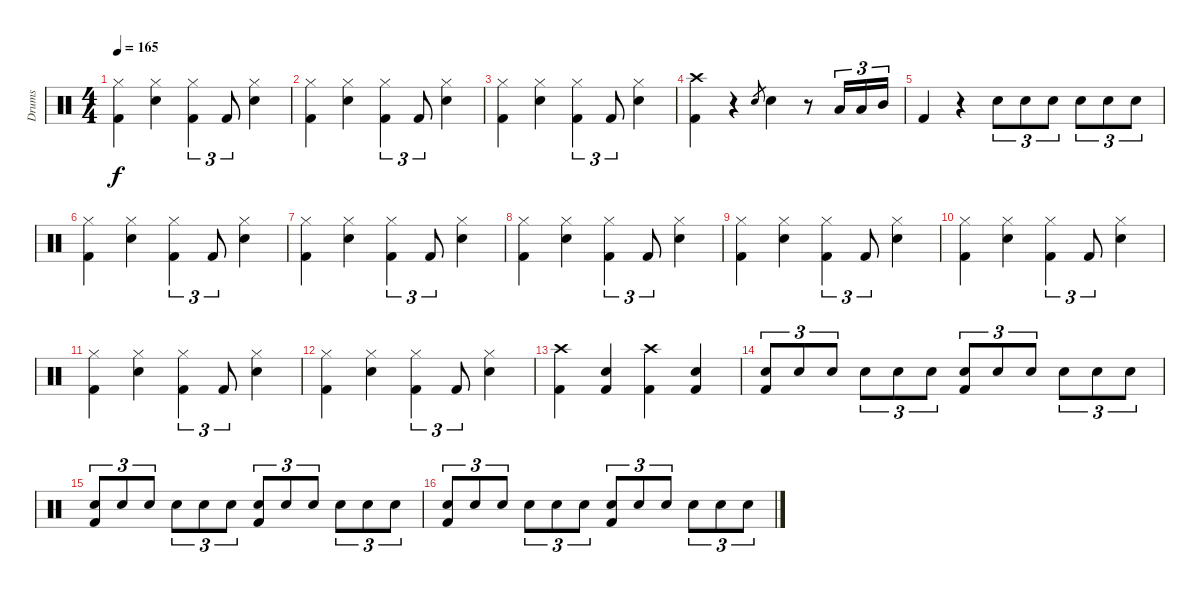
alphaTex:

\track ("Drums" "Drums") {instrument percussion}
\staff {score}
\articulation defaults
\ts (4 4)
\tempo 165
\clef neutral
\ks c
("Hi-Hat (closed)" "Kick (hit) 2").4{dy f} ("Hi-Hat (closed)" "Electric Snare (hit)").4 ("Hi-Hat (closed)" "Kick (hit) 2").4{tu (3 2)} "Kick (hit) 2".8{tu (3 2)} ("Hi-Hat (closed)" "Electric Snare (hit)").4 |
("Hi-Hat (closed)" "Kick (hit) 2").4 ("Hi-Hat (closed)" "Electric Snare (hit)").4 ("Hi-Hat (closed)" "Kick (hit) 2").4{tu (3 2)} "Kick (hit) 2".8{tu (3 2)} ("Hi-Hat (closed)" "Electric Snare (hit)").4 |
("Hi-Hat (closed)" "Kick (hit) 2").4 ("Hi-Hat (closed)" "Electric Snare (hit)").4 ("Hi-Hat (closed)" "Kick (hit) 2").4{tu (3 2)} "Kick (hit) 2".8{tu (3 2)} ("Hi-Hat (closed)" "Electric Snare (hit)").4 |
("Crash high (hit)" "Kick (hit) 2").4 r.4 "Electric Snare (hit)".8{gr} "Electric Snare (hit)".4 r.8 "Low Floor Tom (hit)".16{tu (3 2)} "Low Tom (hit)".16{tu (3 2)} "Mid Tom (hit)".16{tu (3 2)} |
"Kick (hit) 2".4 r.4 "Electric Snare (hit)".8{tu (3 2)} "Electric Snare (hit)".8{tu (3 2)} "Electric Snare (hit)".8{tu (3 2)} "Electric Snare (hit)".8{tu (3 2)} "Electric Snare (hit)".8{tu (3 2)} "Electric Snare (hit)".8{tu (3 2)} |
("Hi-Hat (closed)" "Kick (hit) 2").4 ("Hi-Hat (closed)" "Electric Snare (hit)").4 ("Hi-Hat (closed)" "Kick (hit) 2").4{tu (3 2)} "Kick (hit) 2".8{tu (3 2)} ("Hi-Hat (closed)" "Electric Snare (hit)").4 |
("Hi-Hat (closed)" "Kick (hit) 2").4 ("Hi-Hat (closed)" "Electric Snare (hit)").4 ("Hi-Hat (closed)" "Kick (hit) 2").4{tu (3 2)} "Kick (hit) 2".8{tu (3 2)} ("Hi-Hat (closed)" "Electric Snare (hit)").4 |
("Hi-Hat (closed)" "Kick (hit) 2").4 ("Hi-Hat (closed)" "Electric Snare (hit)").4 ("Hi-Hat (closed)" "Kick (hit) 2").4{tu (3 2)} "Kick (hit) 2".8{tu (3 2)} ("Hi-Hat (closed)" "Electric Snare (hit)").4 |
("Hi-Hat (closed)" "Kick (hit) 2").4 ("Hi-Hat (closed)" "Electric Snare (hit)").4 ("Hi-Hat (closed)" "Kick (hit) 2").4{tu (3 2)} "Kick (hit) 2".8{tu (3 2)} ("Hi-Hat (closed)" "Electric Snare (hit)").4 |
("Hi-Hat (closed)" "Kick (hit) 2").4 ("Hi-Hat (closed)" "Electric Snare (hit)").4 ("Hi-Hat (closed)" "Kick (hit) 2").4{tu (3 2)} "Kick (hit) 2".8{tu (3 2)} ("Hi-Hat (closed)" "Electric Snare (hit)").4 |
("Hi-Hat (closed)" "Kick (hit) 2").4 ("Hi-Hat (closed)" "Electric Snare (hit)").4 ("Hi-Hat (closed)" "Kick (hit) 2").4{tu (3 2)} "Kick (hit) 2".8{tu (3 2)} ("Hi-Hat (closed)" "Electric Snare (hit)").4 |
("Hi-Hat (closed)" "Kick (hit) 2").4 ("Hi-Hat (closed)" "Electric Snare (hit)").4 ("Hi-Hat (closed)" "Kick (hit) 2").4{tu (3 2)} "Kick (hit) 2".8{tu (3 2)} ("Hi-Hat (closed)" "Electric Snare (hit)").4 |
("Kick (hit) 2" "Crash high (hit)").4 ("Kick (hit) 2" "Electric Snare (hit)").4 ("Kick (hit) 2" "Crash high (hit)").4 ("Kick (hit) 2" "Electric Snare (hit)").4 |
("Kick (hit) 2" "Electric Snare (hit)").8{tu (3 2)} "Electric Snare (hit)".8{tu (3 2)} "Electric Snare (hit)".8{tu (3 2)} "Electric Snare (hit)".8{tu (3 2)} "Electric Snare (hit)".8{tu (3 2)} "Electric Snare (hit)".8{tu (3 2)} ("Kick (hit) 2" "Electric Snare (hit)").8{tu (3 2)} "Electric Snare (hit)".8{tu (3 2)} "Electric Snare (hit)".8{tu (3 2)} "Electric Snare (hit)".8{tu (3 2)} "Electric Snare (hit)".8{tu (3 2)} "Electric Snare (hit)".8{tu (3 2)} |
("Kick (hit) 2" "Electric Snare (hit)").8{tu (3 2)} "Electric Snare (hit)".8{tu (3 2)} "Electric Snare (hit)".8{tu (3 2)} "Electric Snare (hit)".8{tu (3 2)} "Electric Snare (hit)".8{tu (3 2)} "Electric Snare (hit)".8{tu (3 2)} ("Kick (hit) 2" "Electric Snare (hit)").8{tu (3 2)} "Electric Snare (hit)".8{tu (3 2)} "Electric Snare (hit)".8{tu (3 2)} "Electric Snare (hit)".8{tu (3 2)} "Electric Snare (hit)".8{tu (3 2)} "Electric Snare (hit)".8{tu (3 2)} |
("Kick (hit) 2" "Electric Snare (hit)").8{tu (3 2)} "Electric Snare (hit)".8{tu (3 2)} "Electric Snare (hit)".8{tu (3 2)} "Electric Snare (hit)".8{tu (3 2)} "Electric Snare (hit)".8{tu (3 2)} "Electric Snare (hit)".8{tu (3 2)} ("Kick (hit) 2" "Electric Snare (hit)").8{tu (3 2)} "Electric Snare (hit)".8{tu (3 2)} "Electric Snare (hit)".8{tu (3 2)} "Electric Snare (hit)".8{tu (3 2)} "Electric Snare (hit)".8{tu (3 2)} "Electric Snare (hit)".8{tu (3 2)}
